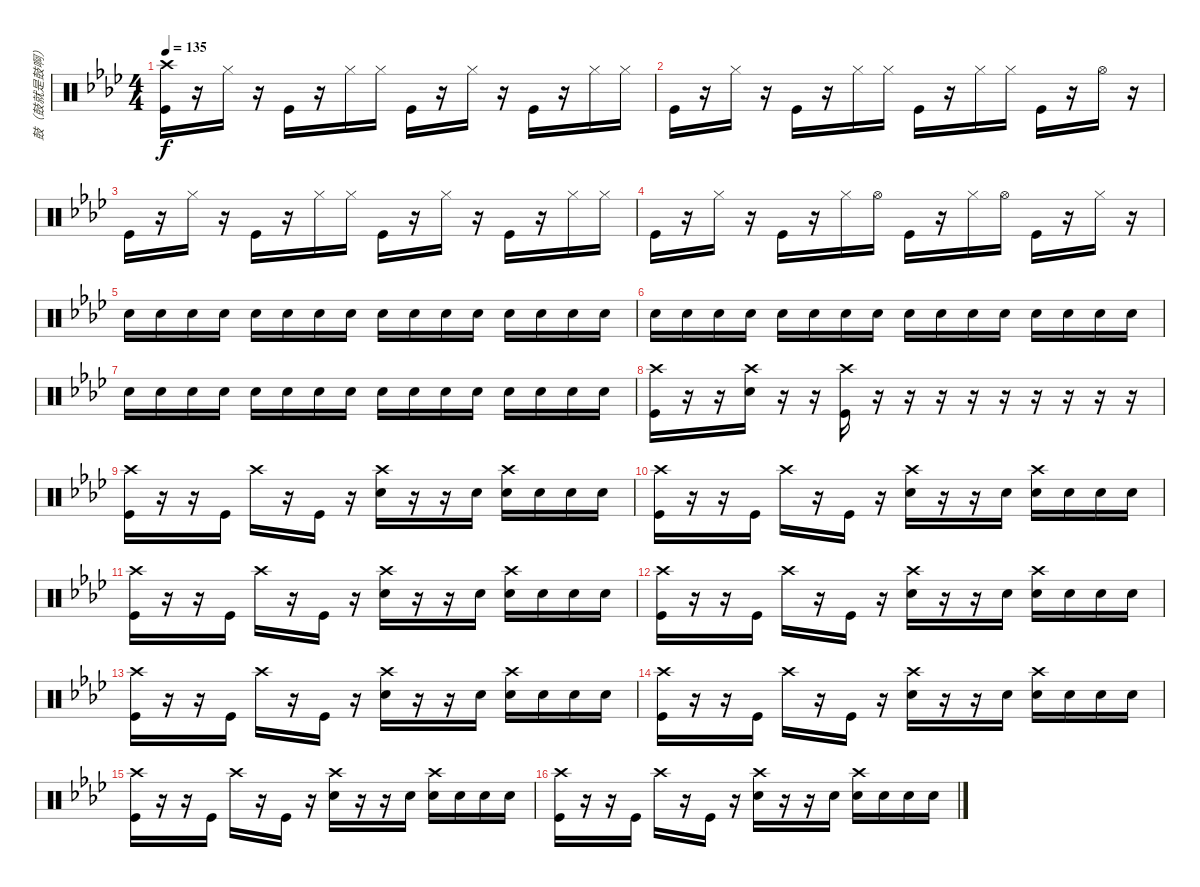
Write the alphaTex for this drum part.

\track ("鼓（鼓就是鼓啊）" "鼓（鼓就是鼓啊）") {instrument percussion}
\staff {score}
\articulation defaults
\ts (4 4)
\tempo 135
\clef neutral
\ks ab
("Crash high (hit)" "Kick (hit)").16{dy f} r.16 "Hi-Hat (closed)".16 r.16 "Kick (hit)".16 r.16 "Hi-Hat (closed)".16 "Hi-Hat (closed)".16 "Kick (hit)".16 r.16 "Hi-Hat (closed)".16 r.16 "Kick (hit)".16 r.16 "Hi-Hat (closed)".16 "Hi-Hat (closed)".16 |
"Kick (hit)".16 r.16 "Hi-Hat (closed)".16 r.16 "Kick (hit)".16 r.16 "Hi-Hat (closed)".16 "Hi-Hat (closed)".16 "Kick (hit)".16 r.16 "Hi-Hat (closed)".16 "Hi-Hat (closed)".16 "Kick (hit)".16 r.16 "Hi-Hat (open)".16 r.16 |
"Kick (hit)".16 r.16 "Hi-Hat (closed)".16 r.16 "Kick (hit)".16 r.16 "Hi-Hat (closed)".16 "Hi-Hat (closed)".16 "Kick (hit)".16 r.16 "Hi-Hat (closed)".16 r.16 "Kick (hit)".16 r.16 "Hi-Hat (closed)".16 "Hi-Hat (closed)".16 |
"Kick (hit)".16 r.16 "Hi-Hat (closed)".16 r.16 "Kick (hit)".16 r.16 "Hi-Hat (closed)".16 "Hi-Hat (open)".16 "Kick (hit)".16 r.16 "Hi-Hat (closed)".16 "Hi-Hat (open)".16 "Kick (hit)".16 r.16 "Hi-Hat (closed)".16 r.16 |
"Snare (hit) 2".16 "Snare (hit) 2".16 "Snare (hit) 2".16 "Snare (hit) 2".16 "Snare (hit) 2".16 "Snare (hit) 2".16 "Snare (hit) 2".16 "Snare (hit) 2".16 "Snare (hit) 2".16 "Snare (hit) 2".16 "Snare (hit) 2".16 "Snare (hit) 2".16 "Snare (hit) 2".16 "Snare (hit) 2".16 "Snare (hit) 2".16 "Snare (hit) 2".16 |
"Snare (hit) 2".16 "Snare (hit) 2".16 "Snare (hit) 2".16 "Snare (hit) 2".16 "Snare (hit) 2".16 "Snare (hit) 2".16 "Snare (hit) 2".16 "Snare (hit) 2".16 "Snare (hit) 2".16 "Snare (hit) 2".16 "Snare (hit) 2".16 "Snare (hit) 2".16 "Snare (hit) 2".16 "Snare (hit) 2".16 "Snare (hit) 2".16 "Snare (hit) 2".16 |
"Snare (hit) 2".16 "Snare (hit) 2".16 "Snare (hit) 2".16 "Snare (hit) 2".16 "Snare (hit) 2".16 "Snare (hit) 2".16 "Snare (hit) 2".16 "Snare (hit) 2".16 "Snare (hit) 2".16 "Snare (hit) 2".16 "Snare (hit) 2".16 "Snare (hit) 2".16 "Snare (hit) 2".16 "Snare (hit) 2".16 "Snare (hit) 2".16 "Snare (hit) 2".16 |
("Crash high (hit)" "Kick (hit)").16 r.16 r.16 ("Crash high (hit)" "Snare (hit) 2").16 r.16 r.16 ("Crash high (hit)" "Kick (hit)").16 r.16 r.16 r.16 r.16 r.16 r.16 r.16 r.16 r.16 |
("Crash high (hit)" "Kick (hit)").16 r.16 r.16 "Kick (hit)".16 "Crash high (hit)".16 r.16 "Kick (hit)".16 r.16 ("Crash high (hit)" "Snare (hit) 2").16 r.16 r.16 "Snare (hit) 2".16 ("Crash high (hit)" "Snare (hit) 2").16 "Snare (hit) 2".16 "Snare (hit) 2".16 "Snare (hit) 2".16 |
("Crash high (hit)" "Kick (hit)").16 r.16 r.16 "Kick (hit)".16 "Crash high (hit)".16 r.16 "Kick (hit)".16 r.16 ("Crash high (hit)" "Snare (hit) 2").16 r.16 r.16 "Snare (hit) 2".16 ("Crash high (hit)" "Snare (hit) 2").16 "Snare (hit) 2".16 "Snare (hit) 2".16 "Snare (hit) 2".16 |
("Crash high (hit)" "Kick (hit)").16 r.16 r.16 "Kick (hit)".16 "Crash high (hit)".16 r.16 "Kick (hit)".16 r.16 ("Crash high (hit)" "Snare (hit) 2").16 r.16 r.16 "Snare (hit) 2".16 ("Crash high (hit)" "Snare (hit) 2").16 "Snare (hit) 2".16 "Snare (hit) 2".16 "Snare (hit) 2".16 |
("Crash high (hit)" "Kick (hit)").16 r.16 r.16 "Kick (hit)".16 "Crash high (hit)".16 r.16 "Kick (hit)".16 r.16 ("Crash high (hit)" "Snare (hit) 2").16 r.16 r.16 "Snare (hit) 2".16 ("Crash high (hit)" "Snare (hit) 2").16 "Snare (hit) 2".16 "Snare (hit) 2".16 "Snare (hit) 2".16 |
("Crash high (hit)" "Kick (hit)").16 r.16 r.16 "Kick (hit)".16 "Crash high (hit)".16 r.16 "Kick (hit)".16 r.16 ("Crash high (hit)" "Snare (hit) 2").16 r.16 r.16 "Snare (hit) 2".16 ("Crash high (hit)" "Snare (hit) 2").16 "Snare (hit) 2".16 "Snare (hit) 2".16 "Snare (hit) 2".16 |
("Crash high (hit)" "Kick (hit)").16 r.16 r.16 "Kick (hit)".16 "Crash high (hit)".16 r.16 "Kick (hit)".16 r.16 ("Crash high (hit)" "Snare (hit) 2").16 r.16 r.16 "Snare (hit) 2".16 ("Crash high (hit)" "Snare (hit) 2").16 "Snare (hit) 2".16 "Snare (hit) 2".16 "Snare (hit) 2".16 |
("Crash high (hit)" "Kick (hit)").16 r.16 r.16 "Kick (hit)".16 "Crash high (hit)".16 r.16 "Kick (hit)".16 r.16 ("Crash high (hit)" "Snare (hit) 2").16 r.16 r.16 "Snare (hit) 2".16 ("Crash high (hit)" "Snare (hit) 2").16 "Snare (hit) 2".16 "Snare (hit) 2".16 "Snare (hit) 2".16 |
("Crash high (hit)" "Kick (hit)").16 r.16 r.16 "Kick (hit)".16 "Crash high (hit)".16 r.16 "Kick (hit)".16 r.16 ("Crash high (hit)" "Snare (hit) 2").16 r.16 r.16 "Snare (hit) 2".16 ("Crash high (hit)" "Snare (hit) 2").16 "Snare (hit) 2".16 "Snare (hit) 2".16 "Snare (hit) 2".16
